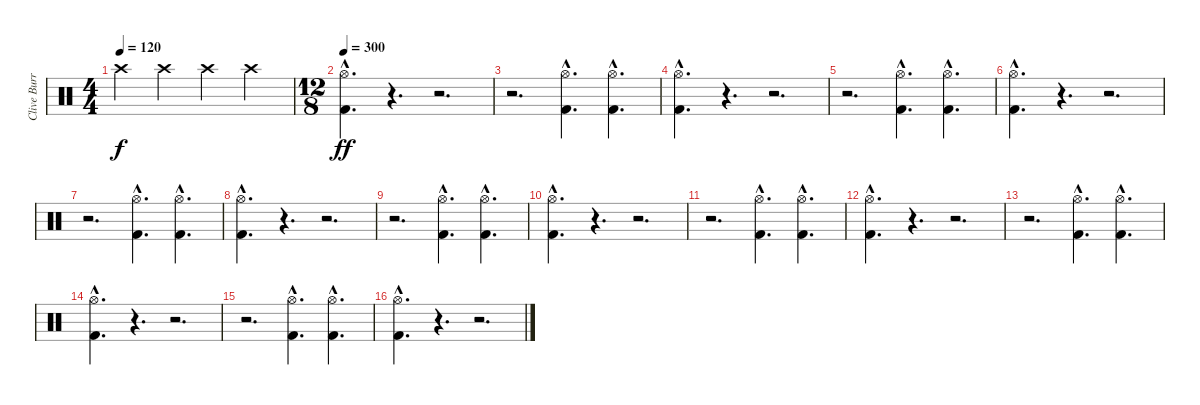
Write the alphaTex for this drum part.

\track ("Clive Burr" "Clive Burr") {instrument percussion}
\staff {score}
\articulation defaults
\ts (4 4)
\tempo 120
\clef neutral
\ks c "Crash high (hit)".4{dy f} "Crash high (hit)".4 "Crash high (hit)".4 "Crash high (hit)".4
|
\ts (12 8)
\tempo 300
("Kick (hit) 2"{hac} "Hi-Hat (open)"{hac}).4{d dy ff} r.4{d} r.2{d} |
r.2{d} ("Kick (hit) 2"{hac} "Hi-Hat (open)"{hac}).4{d} ("Kick (hit) 2"{hac} "Hi-Hat (open)"{hac}).4{d} |
("Kick (hit) 2"{hac} "Hi-Hat (open)"{hac}).4{d} r.4{d} r.2{d} |
r.2{d} ("Kick (hit) 2"{hac} "Hi-Hat (open)"{hac}).4{d} ("Kick (hit) 2"{hac} "Hi-Hat (open)"{hac}).4{d} |
("Kick (hit) 2"{hac} "Hi-Hat (open)"{hac}).4{d} r.4{d} r.2{d} |
r.2{d} ("Kick (hit) 2"{hac} "Hi-Hat (open)"{hac}).4{d} ("Kick (hit) 2"{hac} "Hi-Hat (open)"{hac}).4{d} |
("Kick (hit) 2"{hac} "Hi-Hat (open)"{hac}).4{d} r.4{d} r.2{d} |
r.2{d} ("Kick (hit) 2"{hac} "Hi-Hat (open)"{hac}).4{d} ("Kick (hit) 2"{hac} "Hi-Hat (open)"{hac}).4{d} |
("Kick (hit) 2"{hac} "Hi-Hat (open)"{hac}).4{d} r.4{d} r.2{d} |
r.2{d} ("Kick (hit) 2"{hac} "Hi-Hat (open)"{hac}).4{d} ("Kick (hit) 2"{hac} "Hi-Hat (open)"{hac}).4{d} |
("Kick (hit) 2"{hac} "Hi-Hat (open)"{hac}).4{d} r.4{d} r.2{d} |
r.2{d} ("Kick (hit) 2"{hac} "Hi-Hat (open)"{hac}).4{d} ("Kick (hit) 2"{hac} "Hi-Hat (open)"{hac}).4{d} |
("Kick (hit) 2"{hac} "Hi-Hat (open)"{hac}).4{d} r.4{d} r.2{d} |
r.2{d} ("Kick (hit) 2"{hac} "Hi-Hat (open)"{hac}).4{d} ("Kick (hit) 2"{hac} "Hi-Hat (open)"{hac}).4{d} |
("Kick (hit) 2"{hac} "Hi-Hat (open)"{hac}).4{d} r.4{d} r.2{d}
